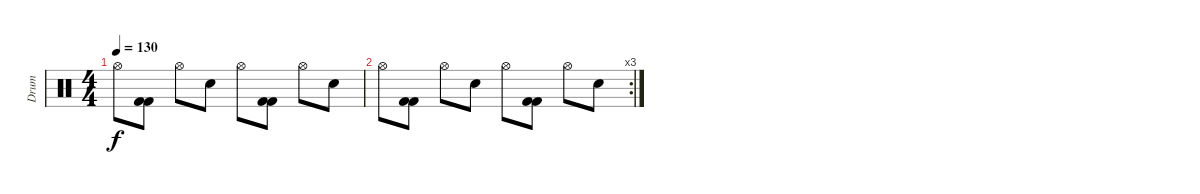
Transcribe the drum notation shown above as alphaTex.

\track ("Drum" "Drum") {instrument percussion}
\staff {score}
\articulation defaults
\ts (4 4)
\tempo 130
\clef neutral
\ks c "Hi-Hat (open)".8{dy f}
("Kick (hit) 2" "Kick (hit) 2").8 "Hi-Hat (open)".8 "Snare (hit) 2".8 "Hi-Hat (open)".8 ("Kick (hit) 2" "Kick (hit) 2").8 "Hi-Hat (open)".8 "Snare (hit) 2".8 |
\rc 3 "Hi-Hat (open)".8
("Kick (hit) 2" "Kick (hit) 2").8 "Hi-Hat (open)".8 "Snare (hit) 2".8 "Hi-Hat (open)".8 ("Kick (hit) 2" "Kick (hit) 2").8 "Hi-Hat (open)".8 "Snare (hit) 2".8
